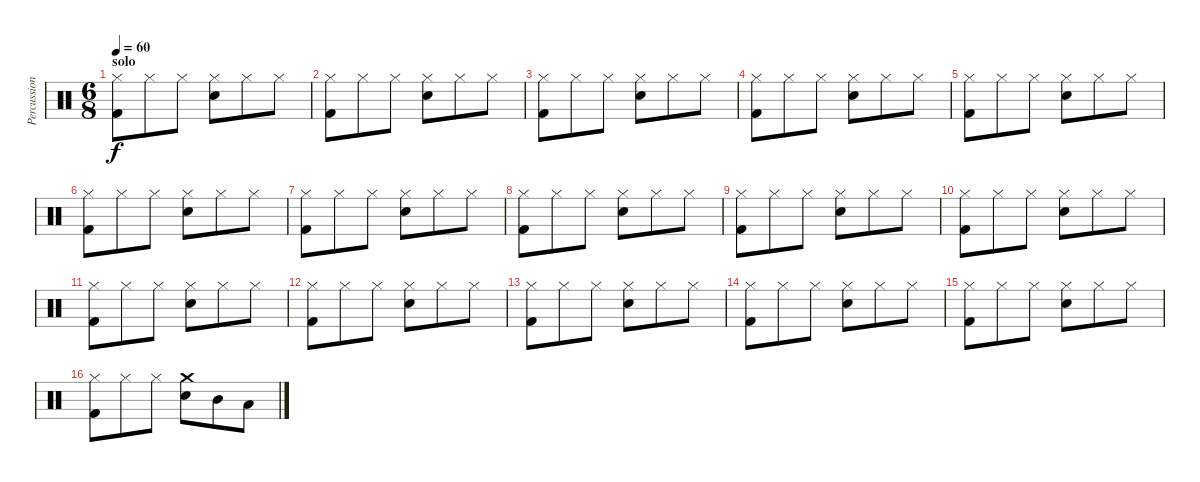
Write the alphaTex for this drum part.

\track ("Percussions" "Percussion") {instrument percussion}
\staff {score}
\articulation defaults
\ts (6 8)
\section ("" "solo")
\tempo 60
\clef neutral
\ks c
("Hi-Hat (closed)" "Kick (hit) 2").8{dy f} "Hi-Hat (closed)".8 "Hi-Hat (closed)".8 ("Hi-Hat (closed)" "Snare (hit) 2").8 "Hi-Hat (closed)".8 "Hi-Hat (closed)".8 |
("Hi-Hat (closed)" "Kick (hit) 2").8 "Hi-Hat (closed)".8 "Hi-Hat (closed)".8 ("Hi-Hat (closed)" "Snare (hit) 2").8 "Hi-Hat (closed)".8 "Hi-Hat (closed)".8 |
("Hi-Hat (closed)" "Kick (hit) 2").8 "Hi-Hat (closed)".8 "Hi-Hat (closed)".8 ("Hi-Hat (closed)" "Snare (hit) 2").8 "Hi-Hat (closed)".8 "Hi-Hat (closed)".8 |
("Hi-Hat (closed)" "Kick (hit) 2").8 "Hi-Hat (closed)".8 "Hi-Hat (closed)".8 ("Hi-Hat (closed)" "Snare (hit) 2").8 "Hi-Hat (closed)".8 "Hi-Hat (closed)".8 |
("Hi-Hat (closed)" "Kick (hit) 2").8 "Hi-Hat (closed)".8 "Hi-Hat (closed)".8 ("Hi-Hat (closed)" "Snare (hit) 2").8 "Hi-Hat (closed)".8 "Hi-Hat (closed)".8 |
("Hi-Hat (closed)" "Kick (hit) 2").8 "Hi-Hat (closed)".8 "Hi-Hat (closed)".8 ("Hi-Hat (closed)" "Snare (hit) 2").8 "Hi-Hat (closed)".8 "Hi-Hat (closed)".8 |
("Hi-Hat (closed)" "Kick (hit) 2").8 "Hi-Hat (closed)".8 "Hi-Hat (closed)".8 ("Hi-Hat (closed)" "Snare (hit) 2").8 "Hi-Hat (closed)".8 "Hi-Hat (closed)".8 |
("Hi-Hat (closed)" "Kick (hit) 2").8 "Hi-Hat (closed)".8 "Hi-Hat (closed)".8 ("Hi-Hat (closed)" "Snare (hit) 2").8 "Hi-Hat (closed)".8 "Hi-Hat (closed)".8 |
("Hi-Hat (closed)" "Kick (hit) 2").8 "Hi-Hat (closed)".8 "Hi-Hat (closed)".8 ("Hi-Hat (closed)" "Snare (hit) 2").8 "Hi-Hat (closed)".8 "Hi-Hat (closed)".8 |
("Hi-Hat (closed)" "Kick (hit) 2").8 "Hi-Hat (closed)".8 "Hi-Hat (closed)".8 ("Hi-Hat (closed)" "Snare (hit) 2").8 "Hi-Hat (closed)".8 "Hi-Hat (closed)".8 |
("Hi-Hat (closed)" "Kick (hit) 2").8 "Hi-Hat (closed)".8 "Hi-Hat (closed)".8 ("Hi-Hat (closed)" "Snare (hit) 2").8 "Hi-Hat (closed)".8 "Hi-Hat (closed)".8 |
("Hi-Hat (closed)" "Kick (hit) 2").8 "Hi-Hat (closed)".8 "Hi-Hat (closed)".8 ("Hi-Hat (closed)" "Snare (hit) 2").8 "Hi-Hat (closed)".8 "Hi-Hat (closed)".8 |
("Hi-Hat (closed)" "Kick (hit) 2").8 "Hi-Hat (closed)".8 "Hi-Hat (closed)".8 ("Hi-Hat (closed)" "Snare (hit) 2").8 "Hi-Hat (closed)".8 "Hi-Hat (closed)".8 |
("Hi-Hat (closed)" "Kick (hit) 2").8 "Hi-Hat (closed)".8 "Hi-Hat (closed)".8 ("Hi-Hat (closed)" "Snare (hit) 2").8 "Hi-Hat (closed)".8 "Hi-Hat (closed)".8 |
("Hi-Hat (closed)" "Kick (hit) 2").8 "Hi-Hat (closed)".8 "Hi-Hat (closed)".8 ("Hi-Hat (closed)" "Snare (hit) 2").8 "Hi-Hat (closed)".8 "Hi-Hat (closed)".8 |
("Hi-Hat (closed)" "Kick (hit) 2").8 "Hi-Hat (closed)".8 "Hi-Hat (closed)".8 ("Crash medium (hit)" "Snare (hit) 2").8 "Mid Tom (hit)".8 "Low Tom (hit)".8
